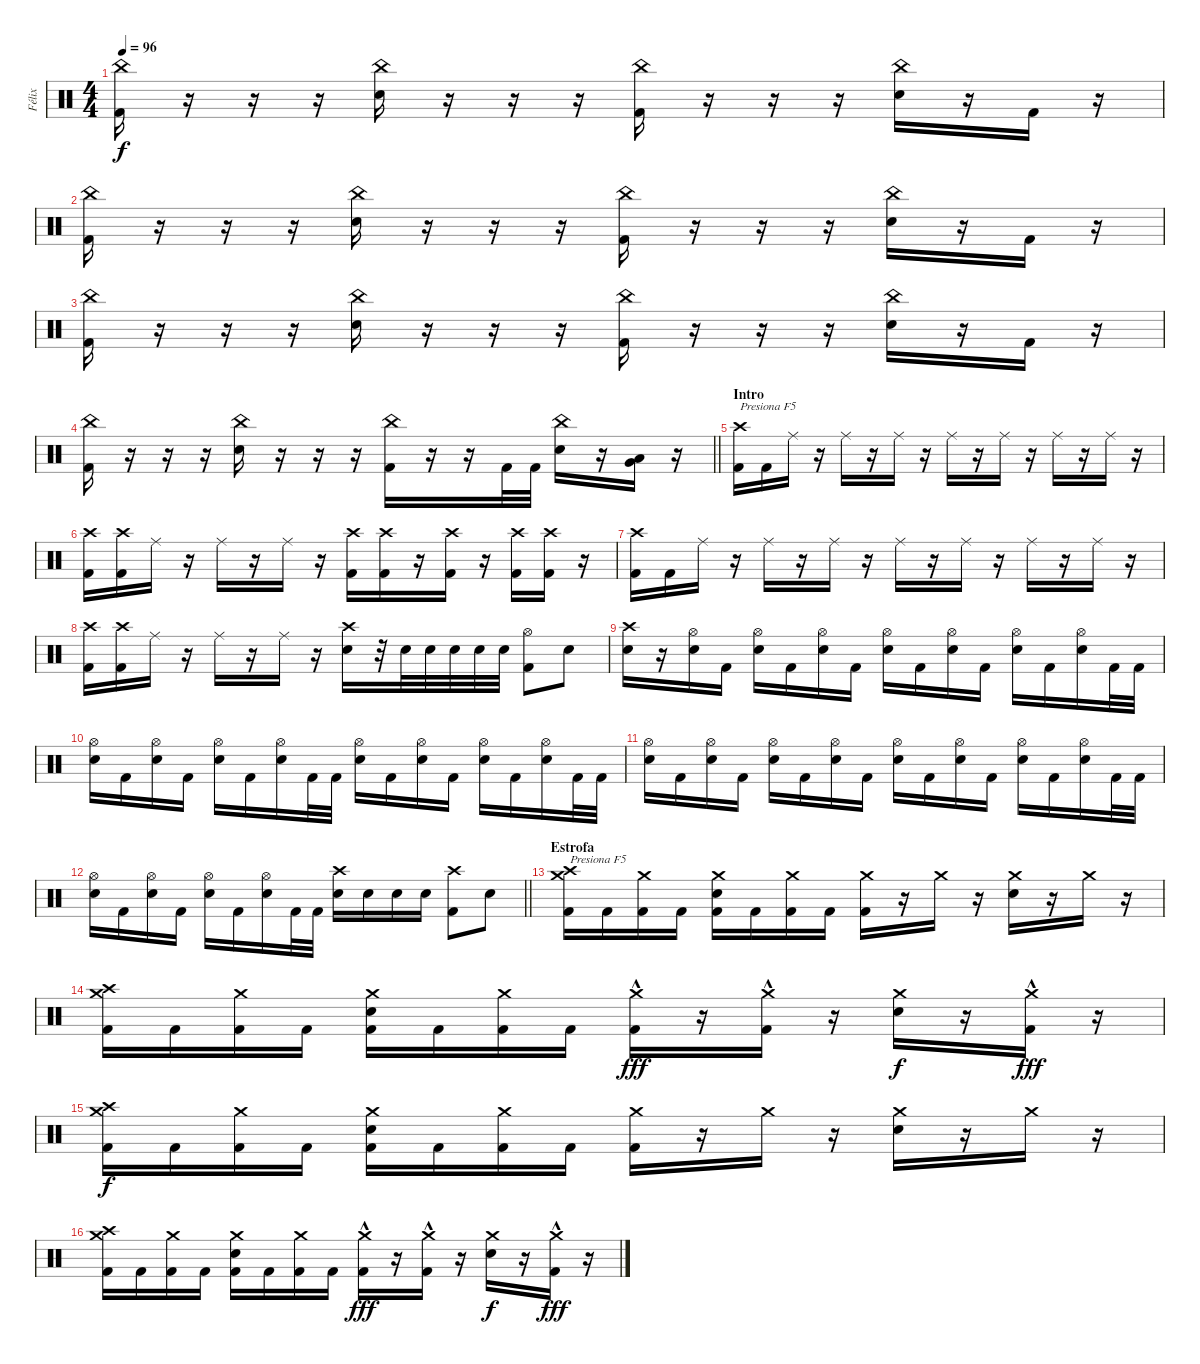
\track ("Félix" "Félix") {instrument percussion}
\staff {score}
\articulation defaults
\ts (4 4)
\tempo 96
\clef neutral
\ks c
("China (hit)" "Kick (hit) 2").16{dy f} r.16 r.16 r.16 ("China (hit)" "Snare (hit) 2").16 r.16 r.16 r.16 ("China (hit)" "Kick (hit) 2").16 r.16 r.16 r.16 ("China (hit)" "Snare (hit) 2").16 r.16 "Kick (hit) 2".16 r.16 |
("China (hit)" "Kick (hit) 2").16 r.16 r.16 r.16 ("China (hit)" "Snare (hit) 2").16 r.16 r.16 r.16 ("China (hit)" "Kick (hit) 2").16 r.16 r.16 r.16 ("China (hit)" "Snare (hit) 2").16 r.16 "Kick (hit) 2".16 r.16 |
("China (hit)" "Kick (hit) 2").16 r.16 r.16 r.16 ("China (hit)" "Snare (hit) 2").16 r.16 r.16 r.16 ("China (hit)" "Kick (hit) 2").16 r.16 r.16 r.16 ("China (hit)" "Snare (hit) 2").16 r.16 "Kick (hit) 2".16 r.16 |
\barLineRight lightlight
("China (hit)" "Kick (hit) 2").16 r.16 r.16 r.16 ("China (hit)" "Snare (hit) 2").16 r.16 r.16 r.16 ("China (hit)" "Kick (hit) 2").16 r.16 r.16 "Kick (hit) 2".32 "Kick (hit) 2".32 ("China (hit)" "Snare (hit) 2").16 r.16 ("Very Low Tom (hit)" "Low Floor Tom (hit)").16 r.16 |
\section ("" "Intro")
("Crash high (hit)" "Kick (hit) 2").16{txt "Presiona F5"} "Kick (hit) 2".16 "Ride (middle)".16 r.16 "Ride (middle)".16 r.16 "Ride (middle)".16 r.16 "Ride (middle)".16 r.16 "Ride (middle)".16 r.16 "Ride (middle)".16 r.16 "Ride (middle)".16 r.16 |
("Crash high (hit)" "Kick (hit) 2").16 ("Crash high (hit)" "Kick (hit) 2").16 "Ride (middle)".16 r.16 "Ride (middle)".16 r.16 "Ride (middle)".16 r.16 ("Crash high (hit)" "Kick (hit) 2").16 ("Crash high (hit)" "Kick (hit) 2").16 r.16 ("Crash high (hit)" "Kick (hit) 2").16 r.16 ("Crash high (hit)" "Kick (hit) 2").16 ("Crash high (hit)" "Kick (hit) 2").16 r.16 |
("Crash high (hit)" "Kick (hit) 2").16 "Kick (hit) 2".16 "Ride (middle)".16 r.16 "Ride (middle)".16 r.16 "Ride (middle)".16 r.16 "Ride (middle)".16 r.16 "Ride (middle)".16 r.16 "Ride (middle)".16 r.16 "Ride (middle)".16 r.16 |
("Crash high (hit)" "Kick (hit) 2").16 ("Crash high (hit)" "Kick (hit) 2").16 "Ride (middle)".16 r.16 "Ride (middle)".16 r.16 "Ride (middle)".16 r.16 ("Crash high (hit)" "Snare (hit) 2").16 r.32 "Snare (hit) 2".32 "Snare (hit) 2".32 "Snare (hit) 2".32 "Snare (hit) 2".32 "Snare (hit) 2".32 ("Hi-Hat (open)" "Kick (hit) 2").8 "Snare (hit) 2".8 |
("Crash high (hit)" "Snare (hit) 2").16 r.16 ("Hi-Hat (open)" "Snare (hit) 2").16 "Kick (hit) 2".16 ("Hi-Hat (open)" "Snare (hit) 2").16 "Kick (hit) 2".16 ("Hi-Hat (open)" "Snare (hit) 2").16 "Kick (hit) 2".16 ("Hi-Hat (open)" "Snare (hit) 2").16 "Kick (hit) 2".16 ("Hi-Hat (open)" "Snare (hit) 2").16 "Kick (hit) 2".16 ("Hi-Hat (open)" "Snare (hit) 2").16 "Kick (hit) 2".16 ("Hi-Hat (open)" "Snare (hit) 2").16 "Kick (hit) 2".32 "Kick (hit) 2".32 |
("Hi-Hat (open)" "Snare (hit) 2").16 "Kick (hit) 2".16 ("Hi-Hat (open)" "Snare (hit) 2").16 "Kick (hit) 2".16 ("Hi-Hat (open)" "Snare (hit) 2").16 "Kick (hit) 2".16 ("Hi-Hat (open)" "Snare (hit) 2").16 "Kick (hit) 2".32 "Kick (hit) 2".32 ("Hi-Hat (open)" "Snare (hit) 2").16 "Kick (hit) 2".16 ("Hi-Hat (open)" "Snare (hit) 2").16 "Kick (hit) 2".16 ("Hi-Hat (open)" "Snare (hit) 2").16 "Kick (hit) 2".16 ("Hi-Hat (open)" "Snare (hit) 2").16 "Kick (hit) 2".32 "Kick (hit) 2".32 |
("Hi-Hat (open)" "Snare (hit) 2").16 "Kick (hit) 2".16 ("Hi-Hat (open)" "Snare (hit) 2").16 "Kick (hit) 2".16 ("Hi-Hat (open)" "Snare (hit) 2").16 "Kick (hit) 2".16 ("Hi-Hat (open)" "Snare (hit) 2").16 "Kick (hit) 2".16 ("Hi-Hat (open)" "Snare (hit) 2").16 "Kick (hit) 2".16 ("Hi-Hat (open)" "Snare (hit) 2").16 "Kick (hit) 2".16 ("Hi-Hat (open)" "Snare (hit) 2").16 "Kick (hit) 2".16 ("Hi-Hat (open)" "Snare (hit) 2").16 "Kick (hit) 2".32 "Kick (hit) 2".32 |
\barLineRight lightlight
("Hi-Hat (open)" "Snare (hit) 2").16 "Kick (hit) 2".16 ("Hi-Hat (open)" "Snare (hit) 2").16 "Kick (hit) 2".16 ("Hi-Hat (open)" "Snare (hit) 2").16 "Kick (hit) 2".16 ("Hi-Hat (open)" "Snare (hit) 2").16 "Kick (hit) 2".32 "Kick (hit) 2".32 ("Crash high (hit)" "Snare (hit) 2").16 "Snare (hit) 2".16 "Snare (hit) 2".16 "Snare (hit) 2".16 ("Crash high (hit)" "Kick (hit) 2").8 "Snare (hit) 2".8 |
\section ("" "Estrofa ")
("Crash high (hit)" "Crash medium (hit)" "Kick (hit) 2").16{txt "Presiona F5"} "Kick (hit) 2".16 ("Crash medium (hit)" "Kick (hit) 2").16 "Kick (hit) 2".16 ("Crash medium (hit)" "Snare (hit) 2" "Kick (hit) 2").16 "Kick (hit) 2".16 ("Crash medium (hit)" "Kick (hit) 2").16 "Kick (hit) 2".16 ("Crash medium (hit)" "Kick (hit) 2").16 r.16 "Crash medium (hit)".16 r.16 ("Crash medium (hit)" "Snare (hit) 2").16 r.16 "Crash medium (hit)".16 r.16 |
("Crash high (hit)" "Crash medium (hit)" "Kick (hit) 2").16 "Kick (hit) 2".16 ("Crash medium (hit)" "Kick (hit) 2").16 "Kick (hit) 2".16 ("Crash medium (hit)" "Snare (hit) 2" "Kick (hit) 2").16 "Kick (hit) 2".16 ("Crash medium (hit)" "Kick (hit) 2").16 "Kick (hit) 2".16 ("Crash medium (hit)" "Kick (hit) 2"{hac}).16{dy fff} r.16 ("Crash medium (hit)" "Kick (hit) 2"{hac}).16 r.16 ("Crash medium (hit)" "Snare (hit) 2").16{dy f} r.16 ("Crash medium (hit)" "Kick (hit) 2"{hac}).16{dy fff} r.16 |
("Crash high (hit)" "Crash medium (hit)" "Kick (hit) 2").16{dy f} "Kick (hit) 2".16 ("Crash medium (hit)" "Kick (hit) 2").16 "Kick (hit) 2".16 ("Crash medium (hit)" "Snare (hit) 2" "Kick (hit) 2").16 "Kick (hit) 2".16 ("Crash medium (hit)" "Kick (hit) 2").16 "Kick (hit) 2".16 ("Crash medium (hit)" "Kick (hit) 2").16 r.16 "Crash medium (hit)".16 r.16 ("Crash medium (hit)" "Snare (hit) 2").16 r.16 "Crash medium (hit)".16 r.16 |
("Crash high (hit)" "Crash medium (hit)" "Kick (hit) 2").16 "Kick (hit) 2".16 ("Crash medium (hit)" "Kick (hit) 2").16 "Kick (hit) 2".16 ("Crash medium (hit)" "Snare (hit) 2" "Kick (hit) 2").16 "Kick (hit) 2".16 ("Crash medium (hit)" "Kick (hit) 2").16 "Kick (hit) 2".16 ("Crash medium (hit)" "Kick (hit) 2"{hac}).16{dy fff} r.16 ("Crash medium (hit)" "Kick (hit) 2"{hac}).16 r.16 ("Crash medium (hit)" "Snare (hit) 2").16{dy f} r.16 ("Crash medium (hit)" "Kick (hit) 2"{hac}).16{dy fff} r.16
